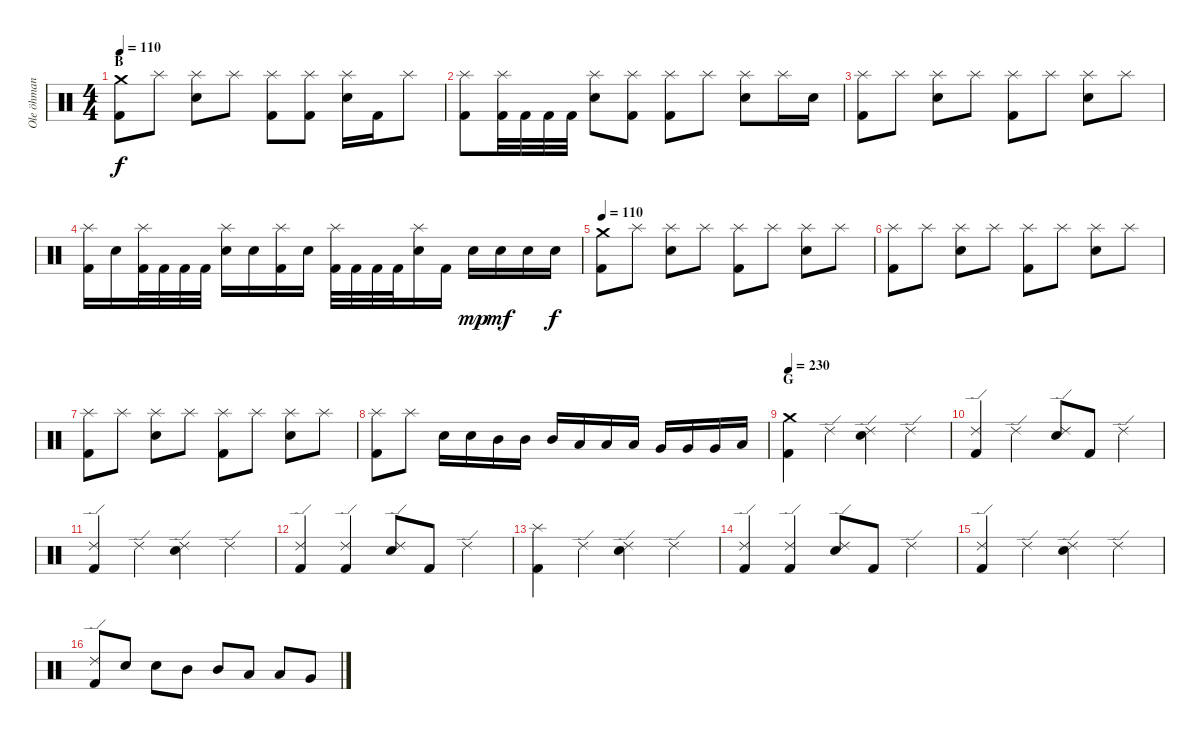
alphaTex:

\track ("Ole öhman" "Ole öhman") {instrument percussion}
\staff {score}
\articulation defaults
\ts (4 4)
\section ("" "B")
\tempo 110
\clef neutral
\ks c
("Crash medium (hit)" "Kick (hit) 2").8{dy f} "Splash (hit)".8 ("Splash (hit)" "Electric Snare (hit)").8 "Splash (hit)".8 ("Splash (hit)" "Kick (hit) 2").8 ("Splash (hit)" "Kick (hit) 2").8 ("Splash (hit)" "Electric Snare (hit)").16 "Kick (hit) 2".16 "Splash (hit)".8 |
("Splash (hit)" "Kick (hit) 2").8 ("Splash (hit)" "Kick (hit) 2").32 "Kick (hit) 2".32 "Kick (hit) 2".32 "Kick (hit) 2".32 ("Splash (hit)" "Electric Snare (hit)").8 ("Splash (hit)" "Kick (hit) 2").8 ("Splash (hit)" "Kick (hit) 2").8 "Splash (hit)".8 ("Splash (hit)" "Electric Snare (hit)").8 "Splash (hit)".16 "Electric Snare (hit)".16 |
("Splash (hit)" "Kick (hit) 2").8 "Splash (hit)".8 ("Splash (hit)" "Electric Snare (hit)").8 "Splash (hit)".8 ("Splash (hit)" "Kick (hit) 2").8 "Splash (hit)".8 ("Splash (hit)" "Electric Snare (hit)").8 "Splash (hit)".8 |
("Splash (hit)" "Kick (hit) 2").16 "Electric Snare (hit)".16 ("Splash (hit)" "Kick (hit) 2").32 "Kick (hit) 2".32 "Kick (hit) 2".32 "Kick (hit) 2".32 ("Splash (hit)" "Electric Snare (hit)").16 "Electric Snare (hit)".16 ("Splash (hit)" "Kick (hit) 2").16 "Electric Snare (hit)".16 ("Splash (hit)" "Kick (hit) 2").32 "Kick (hit) 2".32 "Kick (hit) 2".32 "Kick (hit) 2".32 ("Splash (hit)" "Electric Snare (hit)").16 "Kick (hit) 2".16 "Electric Snare (hit)".16{dy mp} "Electric Snare (hit)".16{dy mf} "Electric Snare (hit)".16 "Electric Snare (hit)".16{dy f} |
\tempo 110
("Crash medium (hit)" "Kick (hit) 2").8 "Splash (hit)".8 ("Splash (hit)" "Electric Snare (hit)").8 "Splash (hit)".8 ("Splash (hit)" "Kick (hit) 2").8 "Splash (hit)".8 ("Splash (hit)" "Electric Snare (hit)").8 "Splash (hit)".8 |
("Splash (hit)" "Kick (hit) 2").8 "Splash (hit)".8 ("Splash (hit)" "Electric Snare (hit)").8 "Splash (hit)".8 ("Splash (hit)" "Kick (hit) 2").8 "Splash (hit)".8 ("Splash (hit)" "Electric Snare (hit)").8 "Splash (hit)".8 |
("Splash (hit)" "Kick (hit) 2").8 "Splash (hit)".8 ("Splash (hit)" "Electric Snare (hit)").8 "Splash (hit)".8 ("Splash (hit)" "Kick (hit) 2").8 "Splash (hit)".8 ("Splash (hit)" "Electric Snare (hit)").8 "Splash (hit)".8 |
("Splash (hit)" "Kick (hit) 2").8 "Splash (hit)".8 "Electric Snare (hit)".16 "Electric Snare (hit)".16 "Mid Tom (hit)".16 "Mid Tom (hit)".16 "Mid Tom (hit)".16 "Low Tom (hit)".16 "Low Tom (hit)".16 "Low Tom (hit)".16 "Very Low Tom (hit)".16 "Very Low Tom (hit)".16 "Very Low Tom (hit)".16 "Low Floor Tom (hit)".16 |
\section ("" "G")
\tempo 230
("Crash medium (hit)" "Kick (hit) 2").4 "Ride (edge) 2".4 ("Ride (edge) 2" "Electric Snare (hit)").4 "Ride (edge) 2".4 |
("Ride (edge) 2" "Kick (hit) 2").4 "Ride (edge) 2".4 ("Ride (edge) 2" "Electric Snare (hit)").8 "Kick (hit) 2".8 "Ride (edge) 2".4 |
("Ride (edge) 2" "Kick (hit) 2").4 "Ride (edge) 2".4 ("Ride (edge) 2" "Electric Snare (hit)").4 "Ride (edge) 2".4 |
("Ride (edge) 2" "Kick (hit) 2").4 ("Ride (edge) 2" "Kick (hit) 2").4 ("Ride (edge) 2" "Electric Snare (hit)").8 "Kick (hit) 2".8 "Ride (edge) 2".4 |
("Splash (hit)" "Kick (hit) 2").4 "Ride (edge) 2".4 ("Ride (edge) 2" "Electric Snare (hit)").4 "Ride (edge) 2".4 |
("Ride (edge) 2" "Kick (hit) 2").4 ("Ride (edge) 2" "Kick (hit) 2").4 ("Ride (edge) 2" "Electric Snare (hit)").8 "Kick (hit) 2".8 "Ride (edge) 2".4 |
("Ride (edge) 2" "Kick (hit) 2").4 "Ride (edge) 2".4 ("Ride (edge) 2" "Electric Snare (hit)").4 "Ride (edge) 2".4 |
("Ride (edge) 2" "Kick (hit) 2").8 "Electric Snare (hit)".8 "Electric Snare (hit)".8 "Mid Tom (hit)".8 "Mid Tom (hit)".8 "Low Tom (hit)".8 "Low Tom (hit)".8 "Very Low Tom (hit)".8
